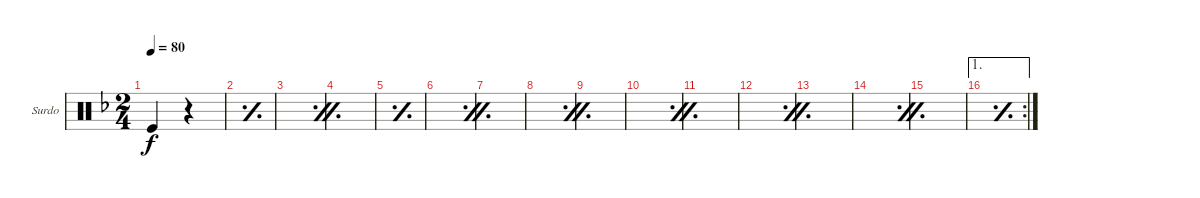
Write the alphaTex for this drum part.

\defaultSystemsLayout 4
\bracketExtendMode groupsimilarinstruments
\firstSystemTrackNameOrientation horizontal
\otherSystemsTrackNameOrientation horizontal
\track ("Surdo" "Surdo") {instrument percussion}
\staff {score}
\articulation defaults
\ts (2 4)
\tempo 80
\clef neutral
\scale
0.5
\ks f "Kick (hit)".4{dy f}
r.4 |
\simile simple
\scale
0.25 |
\simile firstofdouble
\scale
0.25 |
\simile secondofdouble
\scale
0.333333 |
\simile simple
\scale
0.333333 |
\simile firstofdouble
\scale
0.333333 |
\simile secondofdouble
\scale
0.333333 |
\simile firstofdouble
\scale
0.333333 |
\simile secondofdouble
\scale
0.333333 |
\simile firstofdouble
\scale
0.333333 |
\simile secondofdouble
\scale
0.333333 |
\simile firstofdouble
\scale
0.333333 |
\simile secondofdouble
\scale
0.333333 |
\simile firstofdouble
\scale
0.333333 |
\simile secondofdouble
\scale
0.333333 |
\ae 1
\rc 2
\simile simple
\scale
0.333333
